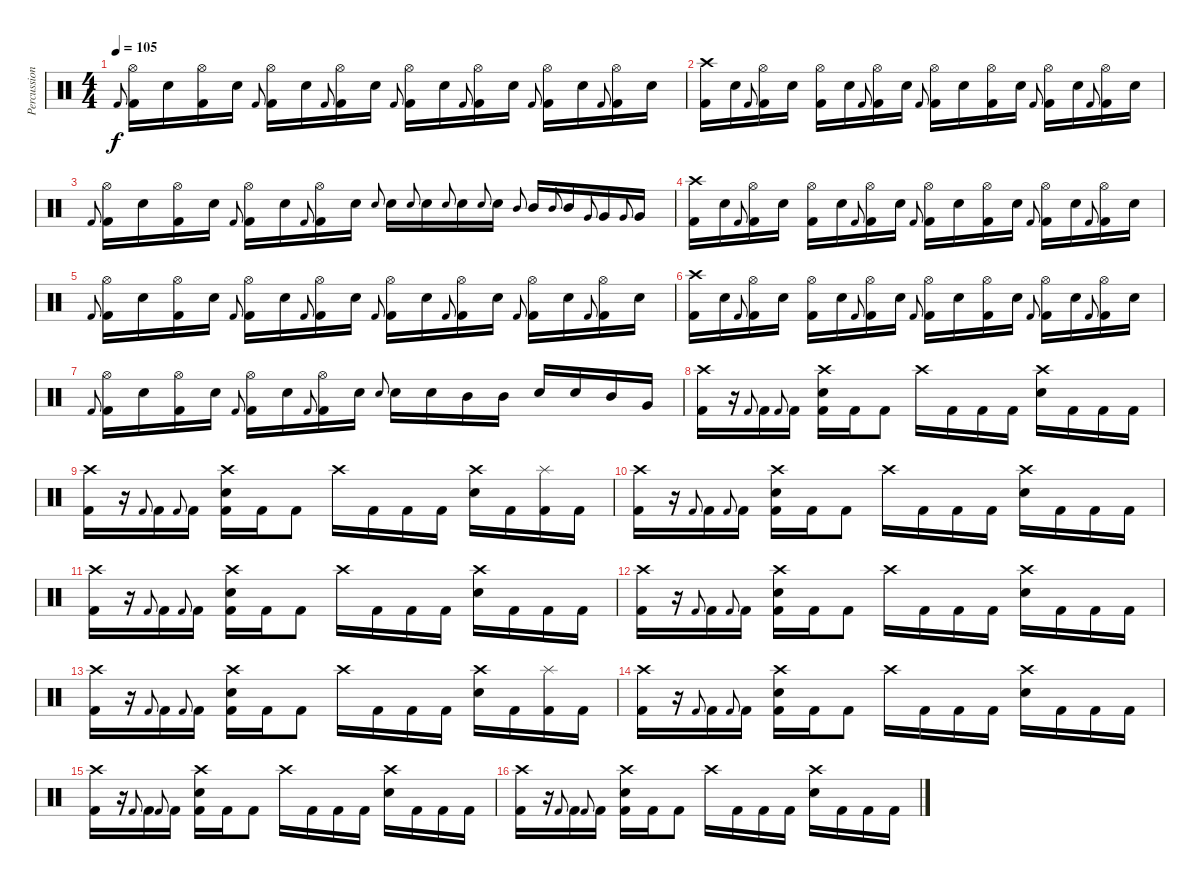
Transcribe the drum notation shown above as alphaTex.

\track ("Percussion" "Percussion") {instrument percussion}
\staff {score}
\articulation defaults
\ts (4 4)
\tempo 105
\clef neutral
\ks c "Kick (hit) 2".8{gr onbeat dy f}
("Hi-Hat (open)" "Kick (hit) 2").16 "Snare (hit) 2".16 ("Hi-Hat (open)" "Kick (hit) 2").16 "Snare (hit) 2".16 "Kick (hit) 2".8{gr onbeat} ("Hi-Hat (open)" "Kick (hit) 2").16 "Snare (hit) 2".16 "Kick (hit) 2".8{gr onbeat} ("Hi-Hat (open)" "Kick (hit) 2").16 "Snare (hit) 2".16 "Kick (hit) 2".8{gr onbeat} ("Hi-Hat (open)" "Kick (hit) 2").16 "Snare (hit) 2".16 "Kick (hit) 2".8{gr onbeat} ("Hi-Hat (open)" "Kick (hit) 2").16 "Snare (hit) 2".16 "Kick (hit) 2".8{gr onbeat} ("Hi-Hat (open)" "Kick (hit) 2").16 "Snare (hit) 2".16 "Kick (hit) 2".8{gr onbeat} ("Hi-Hat (open)" "Kick (hit) 2").16 "Snare (hit) 2".16 |
("Crash high (hit)" "Kick (hit) 2").16 "Snare (hit) 2".16 "Kick (hit) 2".8{gr onbeat} ("Hi-Hat (open)" "Kick (hit) 2").16 "Snare (hit) 2".16 ("Hi-Hat (open)" "Kick (hit) 2").16 "Snare (hit) 2".16 "Kick (hit) 2".8{gr onbeat} ("Hi-Hat (open)" "Kick (hit) 2").16 "Snare (hit) 2".16 "Kick (hit) 2".8{gr onbeat} ("Hi-Hat (open)" "Kick (hit) 2").16 "Snare (hit) 2".16 ("Hi-Hat (open)" "Kick (hit) 2").16 "Snare (hit) 2".16 "Kick (hit) 2".8{gr onbeat} ("Hi-Hat (open)" "Kick (hit) 2").16 "Snare (hit) 2".16 "Kick (hit) 2".8{gr onbeat} ("Hi-Hat (open)" "Kick (hit) 2").16 "Snare (hit) 2".16 |
"Kick (hit) 2".8{gr onbeat} ("Hi-Hat (open)" "Kick (hit) 2").16 "Snare (hit) 2".16 ("Hi-Hat (open)" "Kick (hit) 2").16 "Snare (hit) 2".16 "Kick (hit) 2".8{gr onbeat} ("Hi-Hat (open)" "Kick (hit) 2").16 "Snare (hit) 2".16 "Kick (hit) 2".8{gr onbeat} ("Hi-Hat (open)" "Kick (hit) 2").16 "Snare (hit) 2".16 "Snare (hit) 2".8{gr onbeat} "Snare (hit) 2".16 "Snare (hit) 2".8{gr onbeat} "Snare (hit) 2".16 "Snare (hit) 2".8{gr onbeat} "Snare (hit) 2".16 "Snare (hit) 2".8{gr onbeat} "Snare (hit) 2".16 "Mid Tom (hit)".8{gr onbeat} "Mid Tom (hit)".16 "Mid Tom (hit)".8{gr onbeat} "Mid Tom (hit)".16 "Very Low Tom (hit)".8{gr onbeat} "Very Low Tom (hit)".16 "Very Low Tom (hit)".8{gr onbeat} "Very Low Tom (hit)".16 |
("Crash high (hit)" "Kick (hit) 2").16 "Snare (hit) 2".16 "Kick (hit) 2".8{gr onbeat} ("Hi-Hat (open)" "Kick (hit) 2").16 "Snare (hit) 2".16 ("Hi-Hat (open)" "Kick (hit) 2").16 "Snare (hit) 2".16 "Kick (hit) 2".8{gr onbeat} ("Hi-Hat (open)" "Kick (hit) 2").16 "Snare (hit) 2".16 "Kick (hit) 2".8{gr onbeat} ("Hi-Hat (open)" "Kick (hit) 2").16 "Snare (hit) 2".16 ("Hi-Hat (open)" "Kick (hit) 2").16 "Snare (hit) 2".16 "Kick (hit) 2".8{gr onbeat} ("Hi-Hat (open)" "Kick (hit) 2").16 "Snare (hit) 2".16 "Kick (hit) 2".8{gr onbeat} ("Hi-Hat (open)" "Kick (hit) 2").16 "Snare (hit) 2".16 |
"Kick (hit) 2".8{gr onbeat} ("Hi-Hat (open)" "Kick (hit) 2").16 "Snare (hit) 2".16 ("Hi-Hat (open)" "Kick (hit) 2").16 "Snare (hit) 2".16 "Kick (hit) 2".8{gr onbeat} ("Hi-Hat (open)" "Kick (hit) 2").16 "Snare (hit) 2".16 "Kick (hit) 2".8{gr onbeat} ("Hi-Hat (open)" "Kick (hit) 2").16 "Snare (hit) 2".16 "Kick (hit) 2".8{gr onbeat} ("Hi-Hat (open)" "Kick (hit) 2").16 "Snare (hit) 2".16 "Kick (hit) 2".8{gr onbeat} ("Hi-Hat (open)" "Kick (hit) 2").16 "Snare (hit) 2".16 "Kick (hit) 2".8{gr onbeat} ("Hi-Hat (open)" "Kick (hit) 2").16 "Snare (hit) 2".16 "Kick (hit) 2".8{gr onbeat} ("Hi-Hat (open)" "Kick (hit) 2").16 "Snare (hit) 2".16 |
("Crash high (hit)" "Kick (hit) 2").16 "Snare (hit) 2".16 "Kick (hit) 2".8{gr onbeat} ("Hi-Hat (open)" "Kick (hit) 2").16 "Snare (hit) 2".16 ("Hi-Hat (open)" "Kick (hit) 2").16 "Snare (hit) 2".16 "Kick (hit) 2".8{gr onbeat} ("Hi-Hat (open)" "Kick (hit) 2").16 "Snare (hit) 2".16 "Kick (hit) 2".8{gr onbeat} ("Hi-Hat (open)" "Kick (hit) 2").16 "Snare (hit) 2".16 ("Hi-Hat (open)" "Kick (hit) 2").16 "Snare (hit) 2".16 "Kick (hit) 2".8{gr onbeat} ("Hi-Hat (open)" "Kick (hit) 2").16 "Snare (hit) 2".16 "Kick (hit) 2".8{gr onbeat} ("Hi-Hat (open)" "Kick (hit) 2").16 "Snare (hit) 2".16 |
"Kick (hit) 2".8{gr onbeat} ("Hi-Hat (open)" "Kick (hit) 2").16 "Snare (hit) 2".16 ("Hi-Hat (open)" "Kick (hit) 2").16 "Snare (hit) 2".16 "Kick (hit) 2".8{gr onbeat} ("Hi-Hat (open)" "Kick (hit) 2").16 "Snare (hit) 2".16 "Kick (hit) 2".8{gr onbeat} ("Hi-Hat (open)" "Kick (hit) 2").16 "Snare (hit) 2".16 "Snare (hit) 2".8{gr onbeat} "Snare (hit) 2".16 "Snare (hit) 2".16 "Mid Tom (hit)".16 "Mid Tom (hit)".16 "Snare (hit) 2".16 "Snare (hit) 2".16 "Mid Tom (hit)".16 "Very Low Tom (hit)".16 |
("Crash high (hit)" "Kick (hit) 2").16 r.16 "Kick (hit) 2".8{gr onbeat} "Kick (hit) 2".16 "Kick (hit) 2".8{gr onbeat} "Kick (hit) 2".16 ("Crash high (hit)" "Snare (hit) 2" "Kick (hit) 2").16 "Kick (hit) 2".16 "Kick (hit) 2".8 "Crash high (hit)".16 "Kick (hit) 2".16 "Kick (hit) 2".16 "Kick (hit) 2".16 ("Crash high (hit)" "Snare (hit) 2").16 "Kick (hit) 2".16 "Kick (hit) 2".16 "Kick (hit) 2".16 |
("Crash high (hit)" "Kick (hit) 2").16 r.16 "Kick (hit) 2".8{gr onbeat} "Kick (hit) 2".16 "Kick (hit) 2".8{gr onbeat} "Kick (hit) 2".16 ("Crash high (hit)" "Snare (hit) 2" "Kick (hit) 2").16 "Kick (hit) 2".16 "Kick (hit) 2".8 "Crash high (hit)".16 "Kick (hit) 2".16 "Kick (hit) 2".16 "Kick (hit) 2".16 ("Crash high (hit)" "Snare (hit) 2").16 "Kick (hit) 2".16 ("Splash (hit)" "Kick (hit) 2").16 "Kick (hit) 2".16 |
("Crash high (hit)" "Kick (hit) 2").16 r.16 "Kick (hit) 2".8{gr onbeat} "Kick (hit) 2".16 "Kick (hit) 2".8{gr onbeat} "Kick (hit) 2".16 ("Crash high (hit)" "Snare (hit) 2" "Kick (hit) 2").16 "Kick (hit) 2".16 "Kick (hit) 2".8 "Crash high (hit)".16 "Kick (hit) 2".16 "Kick (hit) 2".16 "Kick (hit) 2".16 ("Crash high (hit)" "Snare (hit) 2").16 "Kick (hit) 2".16 "Kick (hit) 2".16 "Kick (hit) 2".16 |
("Crash high (hit)" "Kick (hit) 2").16 r.16 "Kick (hit) 2".8{gr onbeat} "Kick (hit) 2".16 "Kick (hit) 2".8{gr onbeat} "Kick (hit) 2".16 ("Crash high (hit)" "Snare (hit) 2" "Kick (hit) 2").16 "Kick (hit) 2".16 "Kick (hit) 2".8 "Crash high (hit)".16 "Kick (hit) 2".16 "Kick (hit) 2".16 "Kick (hit) 2".16 ("Crash high (hit)" "Snare (hit) 2").16 "Kick (hit) 2".16 "Kick (hit) 2".16 "Kick (hit) 2".16 |
("Crash high (hit)" "Kick (hit) 2").16 r.16 "Kick (hit) 2".8{gr onbeat} "Kick (hit) 2".16 "Kick (hit) 2".8{gr onbeat} "Kick (hit) 2".16 ("Crash high (hit)" "Snare (hit) 2" "Kick (hit) 2").16 "Kick (hit) 2".16 "Kick (hit) 2".8 "Crash high (hit)".16 "Kick (hit) 2".16 "Kick (hit) 2".16 "Kick (hit) 2".16 ("Crash high (hit)" "Snare (hit) 2").16 "Kick (hit) 2".16 "Kick (hit) 2".16 "Kick (hit) 2".16 |
("Crash high (hit)" "Kick (hit) 2").16 r.16 "Kick (hit) 2".8{gr onbeat} "Kick (hit) 2".16 "Kick (hit) 2".8{gr onbeat} "Kick (hit) 2".16 ("Crash high (hit)" "Snare (hit) 2" "Kick (hit) 2").16 "Kick (hit) 2".16 "Kick (hit) 2".8 "Crash high (hit)".16 "Kick (hit) 2".16 "Kick (hit) 2".16 "Kick (hit) 2".16 ("Crash high (hit)" "Snare (hit) 2").16 "Kick (hit) 2".16 ("Splash (hit)" "Kick (hit) 2").16 "Kick (hit) 2".16 |
("Crash high (hit)" "Kick (hit) 2").16 r.16 "Kick (hit) 2".8{gr onbeat} "Kick (hit) 2".16 "Kick (hit) 2".8{gr onbeat} "Kick (hit) 2".16 ("Crash high (hit)" "Snare (hit) 2" "Kick (hit) 2").16 "Kick (hit) 2".16 "Kick (hit) 2".8 "Crash high (hit)".16 "Kick (hit) 2".16 "Kick (hit) 2".16 "Kick (hit) 2".16 ("Crash high (hit)" "Snare (hit) 2").16 "Kick (hit) 2".16 "Kick (hit) 2".16 "Kick (hit) 2".16 |
("Crash high (hit)" "Kick (hit) 2").16 r.16 "Kick (hit) 2".8{gr onbeat} "Kick (hit) 2".16 "Kick (hit) 2".8{gr onbeat} "Kick (hit) 2".16 ("Crash high (hit)" "Snare (hit) 2" "Kick (hit) 2").16 "Kick (hit) 2".16 "Kick (hit) 2".8 "Crash high (hit)".16 "Kick (hit) 2".16 "Kick (hit) 2".16 "Kick (hit) 2".16 ("Crash high (hit)" "Snare (hit) 2").16 "Kick (hit) 2".16 "Kick (hit) 2".16 "Kick (hit) 2".16 |
("Crash high (hit)" "Kick (hit) 2").16 r.16 "Kick (hit) 2".8{gr onbeat} "Kick (hit) 2".16 "Kick (hit) 2".8{gr onbeat} "Kick (hit) 2".16 ("Crash high (hit)" "Snare (hit) 2" "Kick (hit) 2").16 "Kick (hit) 2".16 "Kick (hit) 2".8 "Crash high (hit)".16 "Kick (hit) 2".16 "Kick (hit) 2".16 "Kick (hit) 2".16 ("Crash high (hit)" "Snare (hit) 2").16 "Kick (hit) 2".16 "Kick (hit) 2".16 "Kick (hit) 2".16
